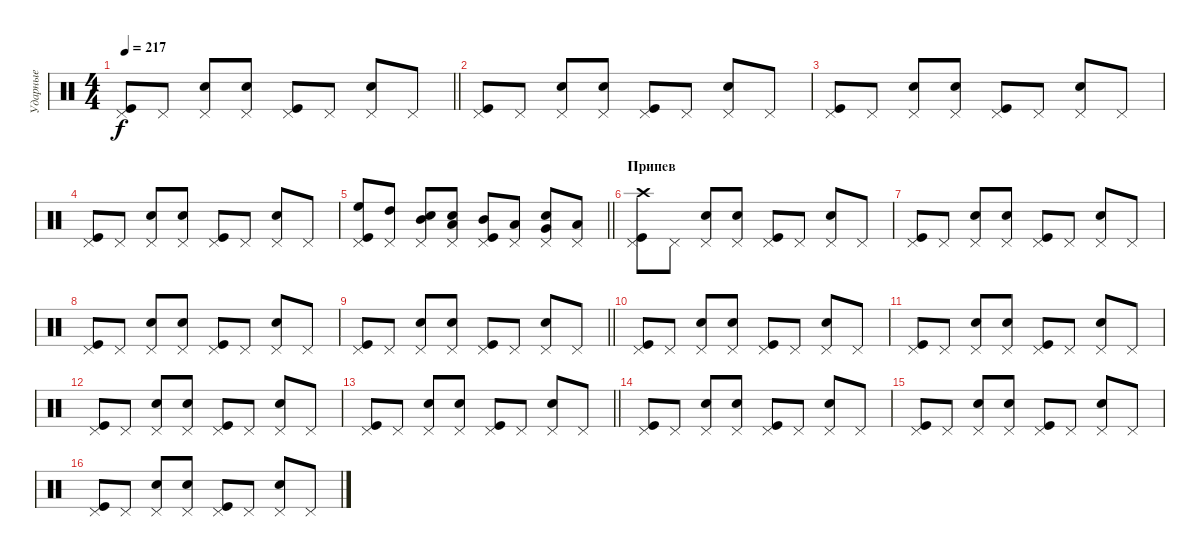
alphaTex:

\track ("Ударные" "Ударные") {instrument percussion}
\staff {score}
\articulation defaults
\ts (4 4)
\tempo 217
\clef neutral
\barLineRight lightlight
\ks c
("Pedal Hi-Hat (hit)" "Kick (hit)").8{dy f} "Pedal Hi-Hat (hit)".8 ("Pedal Hi-Hat (hit)" "Snare (hit) 2").8 ("Pedal Hi-Hat (hit)" "Snare (hit) 2").8 ("Pedal Hi-Hat (hit)" "Kick (hit)").8 "Pedal Hi-Hat (hit)".8 ("Pedal Hi-Hat (hit)" "Snare (hit) 2").8 "Pedal Hi-Hat (hit)".8 |
("Pedal Hi-Hat (hit)" "Kick (hit)").8 "Pedal Hi-Hat (hit)".8 ("Pedal Hi-Hat (hit)" "Snare (hit) 2").8 ("Pedal Hi-Hat (hit)" "Snare (hit) 2").8 ("Pedal Hi-Hat (hit)" "Kick (hit)").8 "Pedal Hi-Hat (hit)".8 ("Pedal Hi-Hat (hit)" "Snare (hit) 2").8 "Pedal Hi-Hat (hit)".8 |
("Pedal Hi-Hat (hit)" "Kick (hit)").8 "Pedal Hi-Hat (hit)".8 ("Pedal Hi-Hat (hit)" "Snare (hit) 2").8 ("Pedal Hi-Hat (hit)" "Snare (hit) 2").8 ("Pedal Hi-Hat (hit)" "Kick (hit)").8 "Pedal Hi-Hat (hit)".8 ("Pedal Hi-Hat (hit)" "Snare (hit) 2").8 "Pedal Hi-Hat (hit)".8 |
("Pedal Hi-Hat (hit)" "Kick (hit)").8 "Pedal Hi-Hat (hit)".8 ("Pedal Hi-Hat (hit)" "Snare (hit) 2").8 ("Pedal Hi-Hat (hit)" "Snare (hit) 2").8 ("Pedal Hi-Hat (hit)" "Kick (hit)").8 "Pedal Hi-Hat (hit)".8 ("Pedal Hi-Hat (hit)" "Snare (hit) 2").8 "Pedal Hi-Hat (hit)".8 |
\barLineRight lightlight
("Pedal Hi-Hat (hit)" "Kick (hit)" "High Floor Tom (hit)").8 ("Pedal Hi-Hat (hit)" "High Tom (hit)").8 ("Pedal Hi-Hat (hit)" "Snare (hit) 2" "Mid Tom (hit)").8 ("Pedal Hi-Hat (hit)" "Snare (hit) 2" "Low Tom (hit)").8 ("Pedal Hi-Hat (hit)" "Kick (hit)" "Mid Tom (hit)").8 ("Pedal Hi-Hat (hit)" "Low Tom (hit)").8 ("Pedal Hi-Hat (hit)" "Snare (hit) 2" "Very Low Tom (hit)").8 ("Pedal Hi-Hat (hit)" "Low Floor Tom (hit)").8 |
\section ("" "Припев")
("Pedal Hi-Hat (hit)" "Kick (hit)" "Crash high (hit)").8 "Pedal Hi-Hat (hit)".8 ("Pedal Hi-Hat (hit)" "Snare (hit) 2").8 ("Pedal Hi-Hat (hit)" "Snare (hit) 2").8 ("Pedal Hi-Hat (hit)" "Kick (hit)").8 "Pedal Hi-Hat (hit)".8 ("Pedal Hi-Hat (hit)" "Snare (hit) 2").8 "Pedal Hi-Hat (hit)".8 |
("Pedal Hi-Hat (hit)" "Kick (hit)").8 "Pedal Hi-Hat (hit)".8 ("Pedal Hi-Hat (hit)" "Snare (hit) 2").8 ("Pedal Hi-Hat (hit)" "Snare (hit) 2").8 ("Pedal Hi-Hat (hit)" "Kick (hit)").8 "Pedal Hi-Hat (hit)".8 ("Pedal Hi-Hat (hit)" "Snare (hit) 2").8 "Pedal Hi-Hat (hit)".8 |
("Pedal Hi-Hat (hit)" "Kick (hit)").8 "Pedal Hi-Hat (hit)".8 ("Pedal Hi-Hat (hit)" "Snare (hit) 2").8 ("Pedal Hi-Hat (hit)" "Snare (hit) 2").8 ("Pedal Hi-Hat (hit)" "Kick (hit)").8 "Pedal Hi-Hat (hit)".8 ("Pedal Hi-Hat (hit)" "Snare (hit) 2").8 "Pedal Hi-Hat (hit)".8 |
\barLineRight lightlight
("Pedal Hi-Hat (hit)" "Kick (hit)").8 "Pedal Hi-Hat (hit)".8 ("Pedal Hi-Hat (hit)" "Snare (hit) 2").8 ("Pedal Hi-Hat (hit)" "Snare (hit) 2").8 ("Pedal Hi-Hat (hit)" "Kick (hit)").8 "Pedal Hi-Hat (hit)".8 ("Pedal Hi-Hat (hit)" "Snare (hit) 2").8 "Pedal Hi-Hat (hit)".8 |
("Pedal Hi-Hat (hit)" "Kick (hit)").8 "Pedal Hi-Hat (hit)".8 ("Pedal Hi-Hat (hit)" "Snare (hit) 2").8 ("Pedal Hi-Hat (hit)" "Snare (hit) 2").8 ("Pedal Hi-Hat (hit)" "Kick (hit)").8 "Pedal Hi-Hat (hit)".8 ("Pedal Hi-Hat (hit)" "Snare (hit) 2").8 "Pedal Hi-Hat (hit)".8 |
("Pedal Hi-Hat (hit)" "Kick (hit)").8 "Pedal Hi-Hat (hit)".8 ("Pedal Hi-Hat (hit)" "Snare (hit) 2").8 ("Pedal Hi-Hat (hit)" "Snare (hit) 2").8 ("Pedal Hi-Hat (hit)" "Kick (hit)").8 "Pedal Hi-Hat (hit)".8 ("Pedal Hi-Hat (hit)" "Snare (hit) 2").8 "Pedal Hi-Hat (hit)".8 |
("Pedal Hi-Hat (hit)" "Kick (hit)").8 "Pedal Hi-Hat (hit)".8 ("Pedal Hi-Hat (hit)" "Snare (hit) 2").8 ("Pedal Hi-Hat (hit)" "Snare (hit) 2").8 ("Pedal Hi-Hat (hit)" "Kick (hit)").8 "Pedal Hi-Hat (hit)".8 ("Pedal Hi-Hat (hit)" "Snare (hit) 2").8 "Pedal Hi-Hat (hit)".8 |
\barLineRight lightlight
("Pedal Hi-Hat (hit)" "Kick (hit)").8 "Pedal Hi-Hat (hit)".8 ("Pedal Hi-Hat (hit)" "Snare (hit) 2").8 ("Pedal Hi-Hat (hit)" "Snare (hit) 2").8 ("Pedal Hi-Hat (hit)" "Kick (hit)").8 "Pedal Hi-Hat (hit)".8 ("Pedal Hi-Hat (hit)" "Snare (hit) 2").8 "Pedal Hi-Hat (hit)".8 |
("Pedal Hi-Hat (hit)" "Kick (hit)").8 "Pedal Hi-Hat (hit)".8 ("Pedal Hi-Hat (hit)" "Snare (hit) 2").8 ("Pedal Hi-Hat (hit)" "Snare (hit) 2").8 ("Pedal Hi-Hat (hit)" "Kick (hit)").8 "Pedal Hi-Hat (hit)".8 ("Pedal Hi-Hat (hit)" "Snare (hit) 2").8 "Pedal Hi-Hat (hit)".8 |
("Pedal Hi-Hat (hit)" "Kick (hit)").8 "Pedal Hi-Hat (hit)".8 ("Pedal Hi-Hat (hit)" "Snare (hit) 2").8 ("Pedal Hi-Hat (hit)" "Snare (hit) 2").8 ("Pedal Hi-Hat (hit)" "Kick (hit)").8 "Pedal Hi-Hat (hit)".8 ("Pedal Hi-Hat (hit)" "Snare (hit) 2").8 "Pedal Hi-Hat (hit)".8 |
("Pedal Hi-Hat (hit)" "Kick (hit)").8 "Pedal Hi-Hat (hit)".8 ("Pedal Hi-Hat (hit)" "Snare (hit) 2").8 ("Pedal Hi-Hat (hit)" "Snare (hit) 2").8 ("Pedal Hi-Hat (hit)" "Kick (hit)").8 "Pedal Hi-Hat (hit)".8 ("Pedal Hi-Hat (hit)" "Snare (hit) 2").8 "Pedal Hi-Hat (hit)".8
